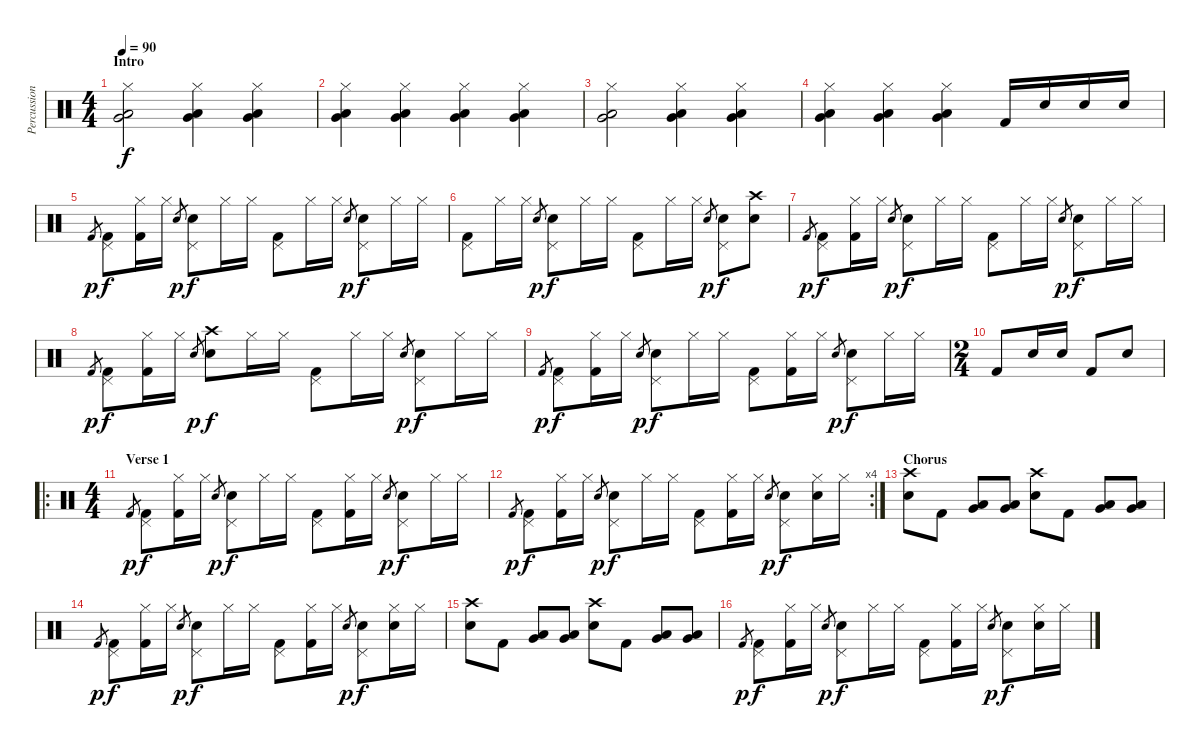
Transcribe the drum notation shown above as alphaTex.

\track ("Percussion" "Percussion") {instrument percussion}
\staff {score}
\articulation defaults
\ts (4 4)
\section ("" "Intro")
\tempo 90
\clef neutral
\ks c
("Hi-Hat (closed)" "Low Floor Tom (hit)" "Very Low Tom (hit)").2{dy f} ("Hi-Hat (closed)" "Low Floor Tom (hit)" "Very Low Tom (hit)").4 ("Hi-Hat (closed)" "Low Floor Tom (hit)" "Very Low Tom (hit)").4 |
("Hi-Hat (closed)" "Low Floor Tom (hit)" "Very Low Tom (hit)").4 ("Hi-Hat (closed)" "Low Floor Tom (hit)" "Very Low Tom (hit)").4 ("Hi-Hat (closed)" "Low Floor Tom (hit)" "Very Low Tom (hit)").4 ("Hi-Hat (closed)" "Low Floor Tom (hit)" "Very Low Tom (hit)").4 |
("Hi-Hat (closed)" "Low Floor Tom (hit)" "Very Low Tom (hit)").2 ("Hi-Hat (closed)" "Low Floor Tom (hit)" "Very Low Tom (hit)").4 ("Hi-Hat (closed)" "Low Floor Tom (hit)" "Very Low Tom (hit)").4 |
("Hi-Hat (closed)" "Low Floor Tom (hit)" "Very Low Tom (hit)").4 ("Hi-Hat (closed)" "Low Floor Tom (hit)" "Very Low Tom (hit)").4 ("Hi-Hat (closed)" "Low Floor Tom (hit)" "Very Low Tom (hit)").4 "Kick (hit) 2".16 "Snare (hit) 2".16 "Snare (hit) 2".16 "Snare (hit) 2".16 |
"Kick (hit) 2".8{gr dy p} ("Pedal Hi-Hat (hit)" "Kick (hit) 2").8{dy f} ("Hi-Hat (closed)" "Kick (hit) 2").16 "Hi-Hat (closed)".16 "Snare (hit) 2".8{gr dy p} ("Pedal Hi-Hat (hit)" "Snare (hit) 2").8{dy f} "Hi-Hat (closed)".16 "Hi-Hat (closed)".16 ("Pedal Hi-Hat (hit)" "Kick (hit) 2").8 "Hi-Hat (closed)".16 "Hi-Hat (closed)".16 "Snare (hit) 2".8{gr dy p} ("Pedal Hi-Hat (hit)" "Snare (hit) 2").8{dy f} "Hi-Hat (closed)".16 "Hi-Hat (closed)".16 |
("Pedal Hi-Hat (hit)" "Kick (hit) 2").8 "Hi-Hat (closed)".16 "Hi-Hat (closed)".16 "Snare (hit) 2".8{gr dy p} ("Pedal Hi-Hat (hit)" "Snare (hit) 2").8{dy f} "Hi-Hat (closed)".16 "Hi-Hat (closed)".16 ("Pedal Hi-Hat (hit)" "Kick (hit) 2").8 "Hi-Hat (closed)".16 "Hi-Hat (closed)".16 "Snare (hit) 2".8{gr dy p} ("Pedal Hi-Hat (hit)" "Snare (hit) 2").8{dy f} ("Crash high (hit)" "Snare (hit) 2").8 |
"Kick (hit) 2".8{gr dy p} ("Pedal Hi-Hat (hit)" "Kick (hit) 2").8{dy f} ("Hi-Hat (closed)" "Kick (hit) 2").16 "Hi-Hat (closed)".16 "Snare (hit) 2".8{gr dy p} ("Pedal Hi-Hat (hit)" "Snare (hit) 2").8{dy f} "Hi-Hat (closed)".16 "Hi-Hat (closed)".16 ("Pedal Hi-Hat (hit)" "Kick (hit) 2").8 "Hi-Hat (closed)".16 "Hi-Hat (closed)".16 "Snare (hit) 2".8{gr dy p} ("Pedal Hi-Hat (hit)" "Snare (hit) 2").8{dy f} "Hi-Hat (closed)".16 "Hi-Hat (closed)".16 |
"Kick (hit) 2".8{gr dy p} ("Pedal Hi-Hat (hit)" "Kick (hit) 2").8{dy f} ("Hi-Hat (closed)" "Kick (hit) 2").16 "Hi-Hat (closed)".16 "Snare (hit) 2".8{gr dy p} ("Crash high (hit)" "Snare (hit) 2").8{dy f} "Hi-Hat (closed)".16 "Hi-Hat (closed)".16 ("Pedal Hi-Hat (hit)" "Kick (hit) 2").8 "Hi-Hat (closed)".16 "Hi-Hat (closed)".16 "Snare (hit) 2".8{gr dy p} ("Pedal Hi-Hat (hit)" "Snare (hit) 2").8{dy f} "Hi-Hat (closed)".16 "Hi-Hat (closed)".16 |
"Kick (hit) 2".8{gr dy p} ("Pedal Hi-Hat (hit)" "Kick (hit) 2").8{dy f} ("Hi-Hat (closed)" "Kick (hit) 2").16 "Hi-Hat (closed)".16 "Snare (hit) 2".8{gr dy p} ("Pedal Hi-Hat (hit)" "Snare (hit) 2").8{dy f} "Hi-Hat (closed)".16 "Hi-Hat (closed)".16 ("Pedal Hi-Hat (hit)" "Kick (hit) 2").8 ("Hi-Hat (closed)" "Kick (hit) 2").16 "Hi-Hat (closed)".16 "Snare (hit) 2".8{gr dy p} ("Pedal Hi-Hat (hit)" "Snare (hit) 2").8{dy f} "Hi-Hat (closed)".16 "Hi-Hat (closed)".16 |
\ts (2 4)
"Kick (hit) 2".8 "Snare (hit) 2".16 "Snare (hit) 2".16 "Kick (hit) 2".8 "Snare (hit) 2".8 |
\ro
\ts (4 4)
\section ("" "Verse 1")
"Kick (hit) 2".8{gr dy p} ("Pedal Hi-Hat (hit)" "Kick (hit) 2").8{dy f} ("Hi-Hat (closed)" "Kick (hit) 2").16 "Hi-Hat (closed)".16 "Snare (hit) 2".8{gr dy p} ("Pedal Hi-Hat (hit)" "Snare (hit) 2").8{dy f} "Hi-Hat (closed)".16 "Hi-Hat (closed)".16 ("Pedal Hi-Hat (hit)" "Kick (hit) 2").8 ("Hi-Hat (closed)" "Kick (hit) 2").16 "Hi-Hat (closed)".16 "Snare (hit) 2".8{gr dy p} ("Pedal Hi-Hat (hit)" "Snare (hit) 2").8{dy f} "Hi-Hat (closed)".16 "Hi-Hat (closed)".16 |
\rc 4 "Kick (hit) 2".8{gr dy p}
("Pedal Hi-Hat (hit)" "Kick (hit) 2").8{dy f} ("Hi-Hat (closed)" "Kick (hit) 2").16 "Hi-Hat (closed)".16 "Snare (hit) 2".8{gr dy p} ("Pedal Hi-Hat (hit)" "Snare (hit) 2").8{dy f} "Hi-Hat (closed)".16 "Hi-Hat (closed)".16 ("Pedal Hi-Hat (hit)" "Kick (hit) 2").8 ("Hi-Hat (closed)" "Kick (hit) 2").16 "Hi-Hat (closed)".16 "Snare (hit) 2".8{gr dy p} ("Pedal Hi-Hat (hit)" "Snare (hit) 2").8{dy f} ("Hi-Hat (closed)" "Snare (hit) 2").16 "Hi-Hat (closed)".16 |
\section ("" "Chorus")
("Crash high (hit)" "Snare (hit) 2").8 "Kick (hit) 2".8 ("Low Floor Tom (hit)" "Very Low Tom (hit)").8 ("Low Floor Tom (hit)" "Very Low Tom (hit)").8 ("Crash high (hit)" "Snare (hit) 2").8 "Kick (hit) 2".8 ("Low Floor Tom (hit)" "Very Low Tom (hit)").8 ("Low Floor Tom (hit)" "Very Low Tom (hit)").8 |
"Kick (hit) 2".8{gr dy p} ("Pedal Hi-Hat (hit)" "Kick (hit) 2").8{dy f} ("Hi-Hat (closed)" "Kick (hit) 2").16 "Hi-Hat (closed)".16 "Snare (hit) 2".8{gr dy p} ("Pedal Hi-Hat (hit)" "Snare (hit) 2").8{dy f} "Hi-Hat (closed)".16 "Hi-Hat (closed)".16 ("Pedal Hi-Hat (hit)" "Kick (hit) 2").8 ("Hi-Hat (closed)" "Kick (hit) 2").16 "Hi-Hat (closed)".16 "Snare (hit) 2".8{gr dy p} ("Pedal Hi-Hat (hit)" "Snare (hit) 2").8{dy f} ("Hi-Hat (closed)" "Snare (hit) 2").16 "Hi-Hat (closed)".16 |
("Crash high (hit)" "Snare (hit) 2").8 "Kick (hit) 2".8 ("Low Floor Tom (hit)" "Very Low Tom (hit)").8 ("Low Floor Tom (hit)" "Very Low Tom (hit)").8 ("Crash high (hit)" "Snare (hit) 2").8 "Kick (hit) 2".8 ("Low Floor Tom (hit)" "Very Low Tom (hit)").8 ("Low Floor Tom (hit)" "Very Low Tom (hit)").8 |
"Kick (hit) 2".8{gr dy p} ("Pedal Hi-Hat (hit)" "Kick (hit) 2").8{dy f} ("Hi-Hat (closed)" "Kick (hit) 2").16 "Hi-Hat (closed)".16 "Snare (hit) 2".8{gr dy p} ("Pedal Hi-Hat (hit)" "Snare (hit) 2").8{dy f} "Hi-Hat (closed)".16 "Hi-Hat (closed)".16 ("Pedal Hi-Hat (hit)" "Kick (hit) 2").8 ("Hi-Hat (closed)" "Kick (hit) 2").16 "Hi-Hat (closed)".16 "Snare (hit) 2".8{gr dy p} ("Pedal Hi-Hat (hit)" "Snare (hit) 2").8{dy f} ("Hi-Hat (closed)" "Snare (hit) 2").16 "Hi-Hat (closed)".16
